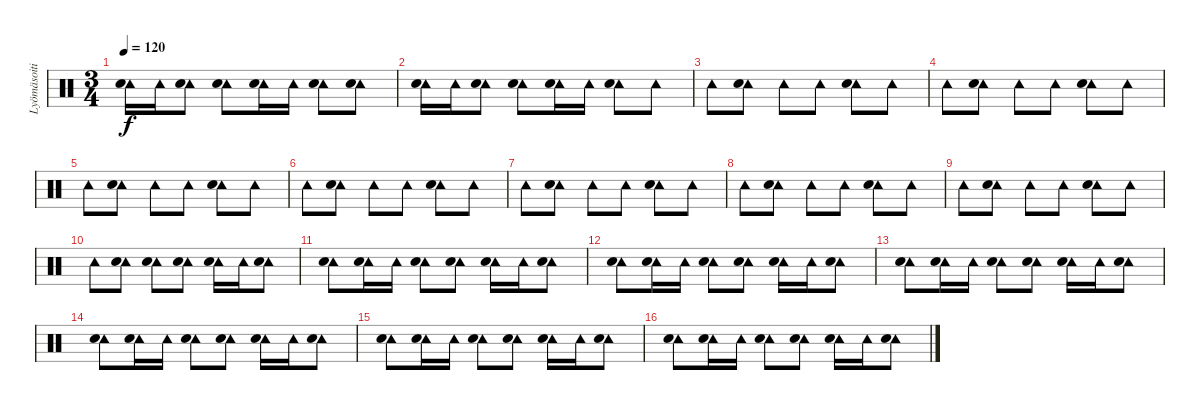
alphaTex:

\track ("Lyömäsoitin" "Lyömäsoiti") {solo instrument percussion}
\staff {score}
\articulation defaults
\ts (3 4)
\tempo 120
\clef neutral
\ks c
("Tambourine (hit)" "Hand Clap (hit)").16{dy f} "Tambourine (hit)".16 ("Tambourine (hit)" "Hand Clap (hit)").8 ("Tambourine (hit)" "Hand Clap (hit)").8 ("Tambourine (hit)" "Hand Clap (hit)").16 "Tambourine (hit)".16 ("Tambourine (hit)" "Hand Clap (hit)").8 ("Tambourine (hit)" "Hand Clap (hit)").8 |
("Tambourine (hit)" "Hand Clap (hit)").16 "Tambourine (hit)".16 ("Tambourine (hit)" "Hand Clap (hit)").8 ("Tambourine (hit)" "Hand Clap (hit)").8 ("Tambourine (hit)" "Hand Clap (hit)").16 "Tambourine (hit)".16 ("Tambourine (hit)" "Hand Clap (hit)").8 "Tambourine (hit)".8 |
"Tambourine (hit)".8 ("Tambourine (hit)" "Hand Clap (hit)").8 "Tambourine (hit)".8 "Tambourine (hit)".8 ("Tambourine (hit)" "Hand Clap (hit)").8 "Tambourine (hit)".8 |
"Tambourine (hit)".8 ("Tambourine (hit)" "Hand Clap (hit)").8 "Tambourine (hit)".8 "Tambourine (hit)".8 ("Tambourine (hit)" "Hand Clap (hit)").8 "Tambourine (hit)".8 |
"Tambourine (hit)".8 ("Tambourine (hit)" "Hand Clap (hit)").8 "Tambourine (hit)".8 "Tambourine (hit)".8 ("Tambourine (hit)" "Hand Clap (hit)").8 "Tambourine (hit)".8 |
"Tambourine (hit)".8 ("Tambourine (hit)" "Hand Clap (hit)").8 "Tambourine (hit)".8 "Tambourine (hit)".8 ("Tambourine (hit)" "Hand Clap (hit)").8 "Tambourine (hit)".8 |
"Tambourine (hit)".8 ("Tambourine (hit)" "Hand Clap (hit)").8 "Tambourine (hit)".8 "Tambourine (hit)".8 ("Tambourine (hit)" "Hand Clap (hit)").8 "Tambourine (hit)".8 |
"Tambourine (hit)".8 ("Tambourine (hit)" "Hand Clap (hit)").8 "Tambourine (hit)".8 "Tambourine (hit)".8 ("Tambourine (hit)" "Hand Clap (hit)").8 "Tambourine (hit)".8 |
"Tambourine (hit)".8 ("Tambourine (hit)" "Hand Clap (hit)").8 "Tambourine (hit)".8 "Tambourine (hit)".8 ("Tambourine (hit)" "Hand Clap (hit)").8 "Tambourine (hit)".8 |
"Tambourine (hit)".8 ("Tambourine (hit)" "Hand Clap (hit)").8 ("Tambourine (hit)" "Hand Clap (hit)").8 ("Tambourine (hit)" "Hand Clap (hit)").8 ("Tambourine (hit)" "Hand Clap (hit)").16 "Tambourine (hit)".16 ("Tambourine (hit)" "Hand Clap (hit)").8 |
("Tambourine (hit)" "Hand Clap (hit)").8 ("Tambourine (hit)" "Hand Clap (hit)").16 "Tambourine (hit)".16 ("Tambourine (hit)" "Hand Clap (hit)").8 ("Tambourine (hit)" "Hand Clap (hit)").8 ("Tambourine (hit)" "Hand Clap (hit)").16 "Tambourine (hit)".16 ("Tambourine (hit)" "Hand Clap (hit)").8 |
("Tambourine (hit)" "Hand Clap (hit)").8 ("Tambourine (hit)" "Hand Clap (hit)").16 "Tambourine (hit)".16 ("Tambourine (hit)" "Hand Clap (hit)").8 ("Tambourine (hit)" "Hand Clap (hit)").8 ("Tambourine (hit)" "Hand Clap (hit)").16 "Tambourine (hit)".16 ("Tambourine (hit)" "Hand Clap (hit)").8 |
("Tambourine (hit)" "Hand Clap (hit)").8 ("Tambourine (hit)" "Hand Clap (hit)").16 "Tambourine (hit)".16 ("Tambourine (hit)" "Hand Clap (hit)").8 ("Tambourine (hit)" "Hand Clap (hit)").8 ("Tambourine (hit)" "Hand Clap (hit)").16 "Tambourine (hit)".16 ("Tambourine (hit)" "Hand Clap (hit)").8 |
("Tambourine (hit)" "Hand Clap (hit)").8 ("Tambourine (hit)" "Hand Clap (hit)").16 "Tambourine (hit)".16 ("Tambourine (hit)" "Hand Clap (hit)").8 ("Tambourine (hit)" "Hand Clap (hit)").8 ("Tambourine (hit)" "Hand Clap (hit)").16 "Tambourine (hit)".16 ("Tambourine (hit)" "Hand Clap (hit)").8 |
("Tambourine (hit)" "Hand Clap (hit)").8 ("Tambourine (hit)" "Hand Clap (hit)").16 "Tambourine (hit)".16 ("Tambourine (hit)" "Hand Clap (hit)").8 ("Tambourine (hit)" "Hand Clap (hit)").8 ("Tambourine (hit)" "Hand Clap (hit)").16 "Tambourine (hit)".16 ("Tambourine (hit)" "Hand Clap (hit)").8 |
("Tambourine (hit)" "Hand Clap (hit)").8 ("Tambourine (hit)" "Hand Clap (hit)").16 "Tambourine (hit)".16 ("Tambourine (hit)" "Hand Clap (hit)").8 ("Tambourine (hit)" "Hand Clap (hit)").8 ("Tambourine (hit)" "Hand Clap (hit)").16 "Tambourine (hit)".16 ("Tambourine (hit)" "Hand Clap (hit)").8
